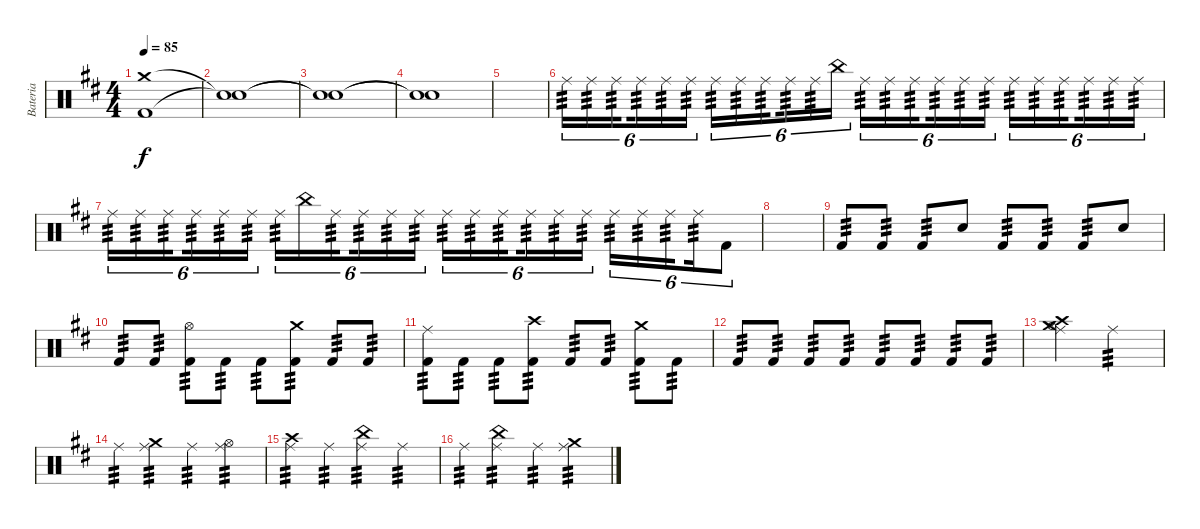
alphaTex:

\track ("Bateria" "Bateria") {instrument percussion}
\staff {score}
\articulation defaults
\ts (4 4)
\tempo 85
\clef neutral
\ks d
("Crash medium (hit)" "Kick (hit) 2").1{dy f volume 0} |
("Snare (hit)"{t} "Snare (hit)"{t}).1 |
("Snare (hit)"{t} "Snare (hit)"{t}).1 |
("Snare (hit)"{t} "Snare (hit)"{t}).1 |
|
"Ride (middle)".16{tu (6 4) tp 3 volume 16 balance 8} "Ride (middle)".16{tu (6 4) tp 3} "Ride (middle)".16{tu (6 4) tp 3 beam splitsecondary} "Ride (middle)".16{tu (6 4) tp 3} "Ride (middle)".16{tu (6 4) tp 3} "Ride (middle)".16{tu (6 4) tp 3} "Ride (middle)".16{tu (6 4) tp 3} "Ride (middle)".16{tu (6 4) tp 3} "Ride (middle)".16{tu (6 4) tp 3 beam splitsecondary} "Ride (middle)".16{tu (6 4) tp 3} "Ride (middle)".16{tu (6 4) tp 3} "China (hit)".16{tu (6 4)} "Ride (middle)".16{tu (6 4) tp 3} "Ride (middle)".16{tu (6 4) tp 3} "Ride (middle)".16{tu (6 4) tp 3 beam splitsecondary} "Ride (middle)".16{tu (6 4) tp 3} "Ride (middle)".16{tu (6 4) tp 3} "Ride (middle)".16{tu (6 4) tp 3} "Ride (middle)".16{tu (6 4) tp 3} "Ride (middle)".16{tu (6 4) tp 3} "Ride (middle)".16{tu (6 4) tp 3 beam splitsecondary} "Ride (middle)".16{tu (6 4) tp 3} "Ride (middle)".16{tu (6 4) tp 3} "Ride (middle)".16{tu (6 4) tp 3} |
"Ride (middle)".16{tu (6 4) tp 3} "Ride (middle)".16{tu (6 4) tp 3} "Ride (middle)".16{tu (6 4) tp 3 beam splitsecondary} "Ride (middle)".16{tu (6 4) tp 3} "Ride (middle)".16{tu (6 4) tp 3} "Ride (middle)".16{tu (6 4) tp 3} "Ride (middle)".16{tu (6 4) tp 3} "China (hit)".16{tu (6 4)} "Ride (middle)".16{tu (6 4) tp 3 beam splitsecondary} "Ride (middle)".16{tu (6 4) tp 3} "Ride (middle)".16{tu (6 4) tp 3} "Ride (middle)".16{tu (6 4) tp 3} "Ride (middle)".16{tu (6 4) tp 3} "Ride (middle)".16{tu (6 4) tp 3} "Ride (middle)".16{tu (6 4) tp 3 beam splitsecondary} "Ride (middle)".16{tu (6 4) tp 3} "Ride (middle)".16{tu (6 4) tp 3} "Ride (middle)".16{tu (6 4) tp 3} "Ride (middle)".16{tu (6 4) tp 3} "Ride (middle)".16{tu (6 4) tp 3} "Ride (middle)".16{tu (6 4) tp 3 beam splitsecondary} "Ride (middle)".16{tu (6 4) tp 3} "Kick (hit) 2".8{tu (6 4)} |
|
"Kick (hit) 2".8{tp 3} "Kick (hit) 2".8{tp 3} "Kick (hit) 2".8{tp 3} "Snare (hit) 2".8 "Kick (hit) 2".8{tp 3} "Kick (hit) 2".8{tp 3} "Kick (hit) 2".8{tp 3} "Snare (hit) 2".8 |
"Kick (hit) 2".8{tp 3} "Kick (hit) 2".8{tp 3} ("Hi-Hat (open)" "Kick (hit) 2").8{tp 3} "Kick (hit) 2".8{tp 3} "Kick (hit) 2".8{tp 3} ("Crash medium (hit)" "Kick (hit) 2").8{tp 3} "Kick (hit) 2".8{tp 3} "Kick (hit) 2".8{tp 3} |
("Ride (middle)" "Kick (hit) 2").8{tp 3} "Kick (hit) 2".8{tp 3} "Kick (hit) 2".8{tp 3} ("Crash high (hit)" "Kick (hit) 2").8{tp 3} "Kick (hit) 2".8{tp 3} "Kick (hit) 2".8{tp 3} ("Crash medium (hit)" "Kick (hit) 2").8{tp 3} "Kick (hit) 2".8{tp 3} |
"Kick (hit) 2".8{tp 3} "Kick (hit) 2".8{tp 3} "Kick (hit) 2".8{tp 3} "Kick (hit) 2".8{tp 3} "Kick (hit) 2".8{tp 3} "Kick (hit) 2".8{tp 3} "Kick (hit) 2".8{tp 3} "Kick (hit) 2".8{tp 3} |
("Ride (middle)" "Crash high (hit)" "Crash medium (hit)" "Hi-Hat (open)").2 "Ride (middle)".2{tp 3} |
"Ride (middle)".4{tp 3} ("Crash medium (hit)" "Ride (middle)").4{tp 3} "Ride (middle)".4{tp 3} ("Hi-Hat (open)" "Ride (middle)").4{tp 3} |
("Crash high (hit)" "Ride (middle)").4{tp 3} "Ride (middle)".4{tp 3} ("China (hit)" "Ride (middle)").4{tp 3} "Ride (middle)".4{tp 3} |
"Ride (middle)".4{tp 3} ("China (hit)" "Ride (middle)").4{tp 3} "Ride (middle)".4{tp 3} ("Crash medium (hit)" "Ride (middle)").4{tp 3}
